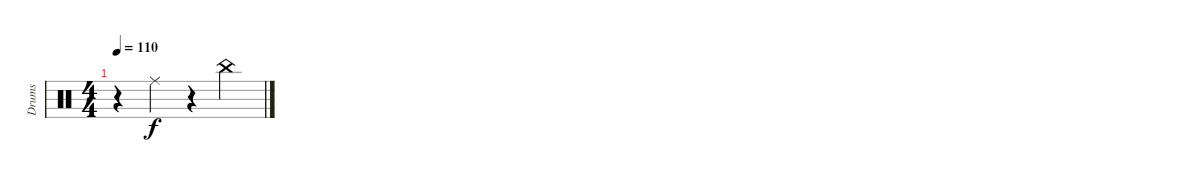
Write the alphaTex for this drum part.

\track ("Drums" "Drums") {instrument percussion}
\staff {score}
\articulation defaults
\ts (4 4)
\tempo 110
\clef neutral
\ks c
r.4{dy f} "Ride (middle)".4 r.4 "China (hit)".4
